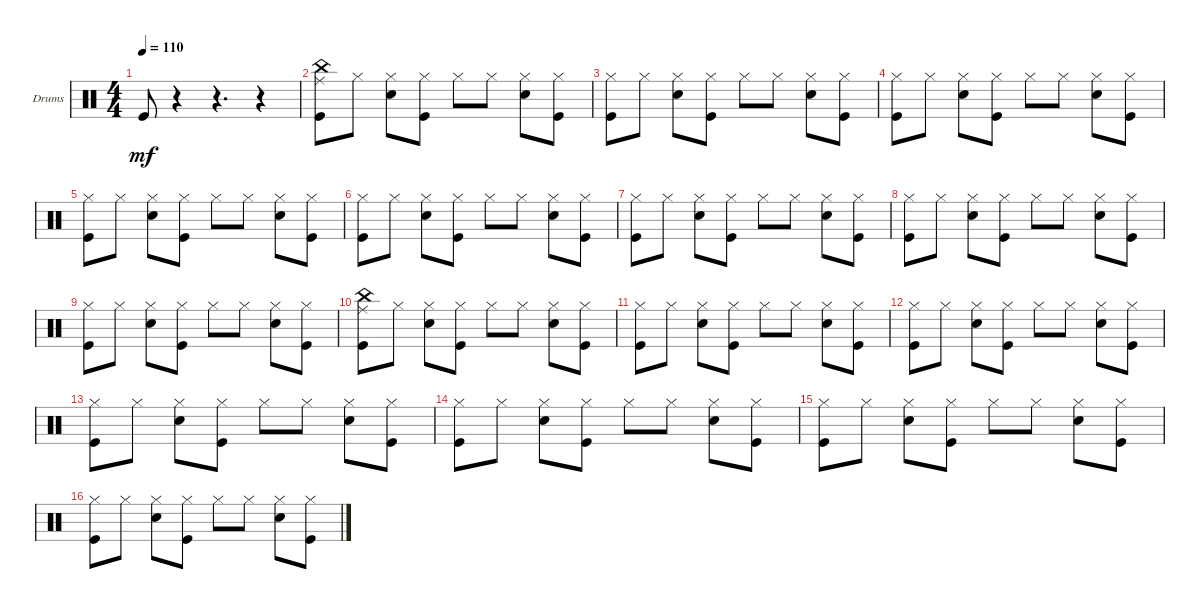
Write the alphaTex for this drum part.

\defaultSystemsLayout 4
\bracketExtendMode groupsimilarinstruments
\firstSystemTrackNameOrientation horizontal
\otherSystemsTrackNameOrientation horizontal
\track ("Drumkit" "Drums") {instrument percussion}
\staff {score}
\articulation defaults
\ts (4 4)
\tempo 110
\clef neutral
\ks c "Kick (hit)".8{dy mf}
r.4 r.4{d} r.4 |
("Kick (hit)" "Ride (middle)" "China (hit)").8 "Hi-Hat (closed)".8 ("Snare (hit) 2" "Hi-Hat (closed)").8 ("Kick (hit)" "Hi-Hat (closed)").8 "Hi-Hat (closed)".8 "Hi-Hat (closed)".8 ("Snare (hit) 2" "Hi-Hat (closed)").8 ("Hi-Hat (closed)" "Kick (hit)").8 |
("Kick (hit)" "Hi-Hat (closed)").8 "Hi-Hat (closed)".8 ("Snare (hit) 2" "Hi-Hat (closed)").8 ("Kick (hit)" "Hi-Hat (closed)").8 "Hi-Hat (closed)".8 "Hi-Hat (closed)".8 ("Snare (hit) 2" "Hi-Hat (closed)").8 ("Hi-Hat (closed)" "Kick (hit)").8 |
("Kick (hit)" "Hi-Hat (closed)").8 "Hi-Hat (closed)".8 ("Snare (hit) 2" "Hi-Hat (closed)").8 ("Kick (hit)" "Hi-Hat (closed)").8 "Hi-Hat (closed)".8 "Hi-Hat (closed)".8 ("Snare (hit) 2" "Hi-Hat (closed)").8 ("Hi-Hat (closed)" "Kick (hit)").8 |
("Kick (hit)" "Hi-Hat (closed)").8 "Hi-Hat (closed)".8 ("Snare (hit) 2" "Hi-Hat (closed)").8 ("Kick (hit)" "Hi-Hat (closed)").8 "Hi-Hat (closed)".8 "Hi-Hat (closed)".8 ("Snare (hit) 2" "Hi-Hat (closed)").8 ("Hi-Hat (closed)" "Kick (hit)").8 |
("Kick (hit)" "Hi-Hat (closed)").8 "Hi-Hat (closed)".8 ("Snare (hit) 2" "Hi-Hat (closed)").8 ("Kick (hit)" "Hi-Hat (closed)").8 "Hi-Hat (closed)".8 "Hi-Hat (closed)".8 ("Snare (hit) 2" "Hi-Hat (closed)").8 ("Hi-Hat (closed)" "Kick (hit)").8 |
("Kick (hit)" "Hi-Hat (closed)").8 "Hi-Hat (closed)".8 ("Snare (hit) 2" "Hi-Hat (closed)").8 ("Kick (hit)" "Hi-Hat (closed)").8 "Hi-Hat (closed)".8 "Hi-Hat (closed)".8 ("Snare (hit) 2" "Hi-Hat (closed)").8 ("Hi-Hat (closed)" "Kick (hit)").8 |
("Kick (hit)" "Hi-Hat (closed)").8 "Hi-Hat (closed)".8 ("Snare (hit) 2" "Hi-Hat (closed)").8 ("Kick (hit)" "Hi-Hat (closed)").8 "Hi-Hat (closed)".8 "Hi-Hat (closed)".8 ("Snare (hit) 2" "Hi-Hat (closed)").8 ("Hi-Hat (closed)" "Kick (hit)").8 |
("Kick (hit)" "Hi-Hat (closed)").8 "Hi-Hat (closed)".8 ("Snare (hit) 2" "Hi-Hat (closed)").8 ("Kick (hit)" "Hi-Hat (closed)").8 "Hi-Hat (closed)".8 "Hi-Hat (closed)".8 ("Snare (hit) 2" "Hi-Hat (closed)").8 ("Hi-Hat (closed)" "Kick (hit)").8 |
("Kick (hit)" "Ride (middle)" "China (hit)").8 "Hi-Hat (closed)".8 ("Snare (hit) 2" "Hi-Hat (closed)").8 ("Kick (hit)" "Hi-Hat (closed)").8 "Hi-Hat (closed)".8 "Hi-Hat (closed)".8 ("Snare (hit) 2" "Hi-Hat (closed)").8 ("Hi-Hat (closed)" "Kick (hit)").8 |
("Kick (hit)" "Hi-Hat (closed)").8 "Hi-Hat (closed)".8 ("Snare (hit) 2" "Hi-Hat (closed)").8 ("Kick (hit)" "Hi-Hat (closed)").8 "Hi-Hat (closed)".8 "Hi-Hat (closed)".8 ("Snare (hit) 2" "Hi-Hat (closed)").8 ("Hi-Hat (closed)" "Kick (hit)").8 |
("Kick (hit)" "Hi-Hat (closed)").8 "Hi-Hat (closed)".8 ("Snare (hit) 2" "Hi-Hat (closed)").8 ("Kick (hit)" "Hi-Hat (closed)").8 "Hi-Hat (closed)".8 "Hi-Hat (closed)".8 ("Snare (hit) 2" "Hi-Hat (closed)").8 ("Hi-Hat (closed)" "Kick (hit)").8 |
("Kick (hit)" "Hi-Hat (closed)").8 "Hi-Hat (closed)".8 ("Snare (hit) 2" "Hi-Hat (closed)").8 ("Kick (hit)" "Hi-Hat (closed)").8 "Hi-Hat (closed)".8 "Hi-Hat (closed)".8 ("Snare (hit) 2" "Hi-Hat (closed)").8 ("Hi-Hat (closed)" "Kick (hit)").8 |
("Kick (hit)" "Hi-Hat (closed)").8 "Hi-Hat (closed)".8 ("Snare (hit) 2" "Hi-Hat (closed)").8 ("Kick (hit)" "Hi-Hat (closed)").8 "Hi-Hat (closed)".8 "Hi-Hat (closed)".8 ("Snare (hit) 2" "Hi-Hat (closed)").8 ("Hi-Hat (closed)" "Kick (hit)").8 |
("Kick (hit)" "Hi-Hat (closed)").8 "Hi-Hat (closed)".8 ("Snare (hit) 2" "Hi-Hat (closed)").8 ("Kick (hit)" "Hi-Hat (closed)").8 "Hi-Hat (closed)".8 "Hi-Hat (closed)".8 ("Snare (hit) 2" "Hi-Hat (closed)").8 ("Hi-Hat (closed)" "Kick (hit)").8 |
("Kick (hit)" "Hi-Hat (closed)").8 "Hi-Hat (closed)".8 ("Snare (hit) 2" "Hi-Hat (closed)").8 ("Kick (hit)" "Hi-Hat (closed)").8 "Hi-Hat (closed)".8 "Hi-Hat (closed)".8 ("Snare (hit) 2" "Hi-Hat (closed)").8 ("Hi-Hat (closed)" "Kick (hit)").8
